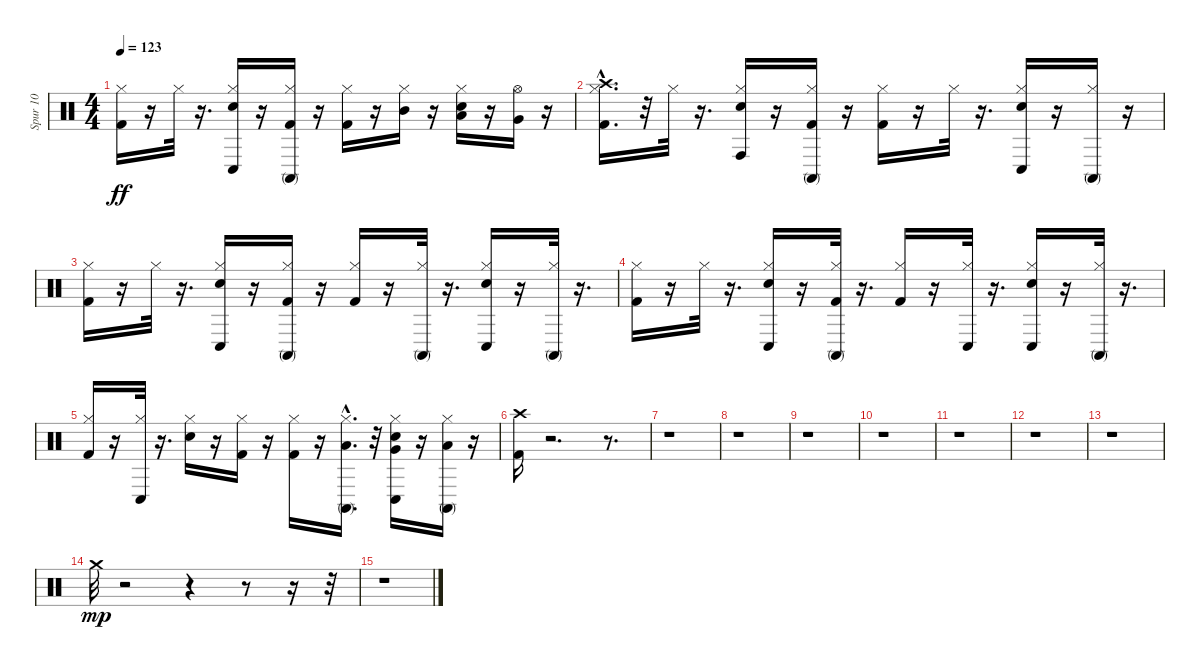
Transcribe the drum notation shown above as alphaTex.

\track ("Spur 10" "Spur 10") {instrument percussion}
\staff {score}
\articulation defaults
\ts (4 4)
\tempo 123
\clef neutral
\ks c
("Kick (hit) 2" "Hi-Hat (closed)").16{dy ff} r.16 "Hi-Hat (closed)".32 r.16{d} ("Snare (hit) 2" "Conga low (hit)" "Hi-Hat (closed)").16 r.16 ("Kick (hit) 2" "Conga high (mute)" "Hi-Hat (closed)").16 r.16 ("Kick (hit) 2" "Hi-Hat (closed)").16 r.16 ("Mid Tom (hit)" "Hi-Hat (closed)").16 r.16 ("Snare (hit) 2" "Hi-Hat (closed)" "Low Tom (hit)").16 r.16 ("Hi-Hat (open)" "Very Low Tom (hit)").16 r.16 |
("Kick (hit) 2"{hac} "Hi-Hat (closed)" "Crash high (hit)").16{d} r.32 "Hi-Hat (closed)".32 r.16{d} ("Snare (hit) 2" "Conga high (hit)" "Hi-Hat (closed)").16 r.16 ("Kick (hit) 2" "Conga high (mute)" "Hi-Hat (closed)").16 r.16 ("Kick (hit) 2" "Hi-Hat (closed)").16 r.16 "Hi-Hat (closed)".32 r.16{d} ("Snare (hit) 2" "Conga low (hit)" "Hi-Hat (closed)").16 r.16 ("Conga high (mute)" "Hi-Hat (closed)").16 r.16 |
("Kick (hit) 2" "Hi-Hat (closed)").16 r.16 "Hi-Hat (closed)".32 r.16{d} ("Snare (hit) 2" "Conga low (hit)" "Hi-Hat (closed)").16 r.16 ("Kick (hit) 2" "Conga high (mute)" "Hi-Hat (closed)").16 r.16 ("Kick (hit) 2" "Hi-Hat (closed)").16 r.16 ("Conga high (mute)" "Hi-Hat (closed)").32 r.16{d} ("Snare (hit) 2" "Conga low (hit)" "Hi-Hat (closed)").16 r.16 ("Conga high (mute)" "Hi-Hat (closed)").32 r.16{d} |
("Kick (hit) 2" "Hi-Hat (closed)").16 r.16 "Hi-Hat (closed)".32 r.16{d} ("Snare (hit) 2" "Conga low (hit)" "Hi-Hat (closed)").16 r.16 ("Kick (hit) 2" "Conga high (mute)" "Hi-Hat (closed)").32 r.16{d} ("Kick (hit) 2" "Hi-Hat (closed)").16 r.16 ("Conga low (hit)" "Hi-Hat (closed)").32 r.16{d} ("Snare (hit) 2" "Conga low (hit)" "Hi-Hat (closed)").16 r.16 ("Hi-Hat (closed)" "Conga high (mute)").32 r.16{d} |
("Kick (hit) 2" "Hi-Hat (closed)").16 r.16 ("Conga low (hit)" "Hi-Hat (closed)").32 r.16{d} ("Snare (hit) 2" "Hi-Hat (closed)").16 r.16 ("Kick (hit) 2" "Hi-Hat (closed)").16 r.16 ("Kick (hit) 2" "Hi-Hat (closed)").16 r.16 ("Low Tom (hit)"{hac} "Conga high (mute)" "Hi-Hat (closed)").16{d} r.32 ("Snare (hit) 2" "Conga low (hit)" "Very Low Tom (hit)" "Hi-Hat (closed)").16 r.16 ("Hi-Hat (closed)" "Conga high (mute)" "Low Floor Tom (hit)").16 r.16 |
("Kick (hit) 2" "Crash high (hit)").16 r.2{d} r.8{d} |
r.1 |
r.1 |
r.1 |
r.1 |
r.1 |
r.1 |
r.1 |
"Crash medium (hit)".32{dy mp} r.2 r.4 r.8 r.16 r.32 |
r.1
